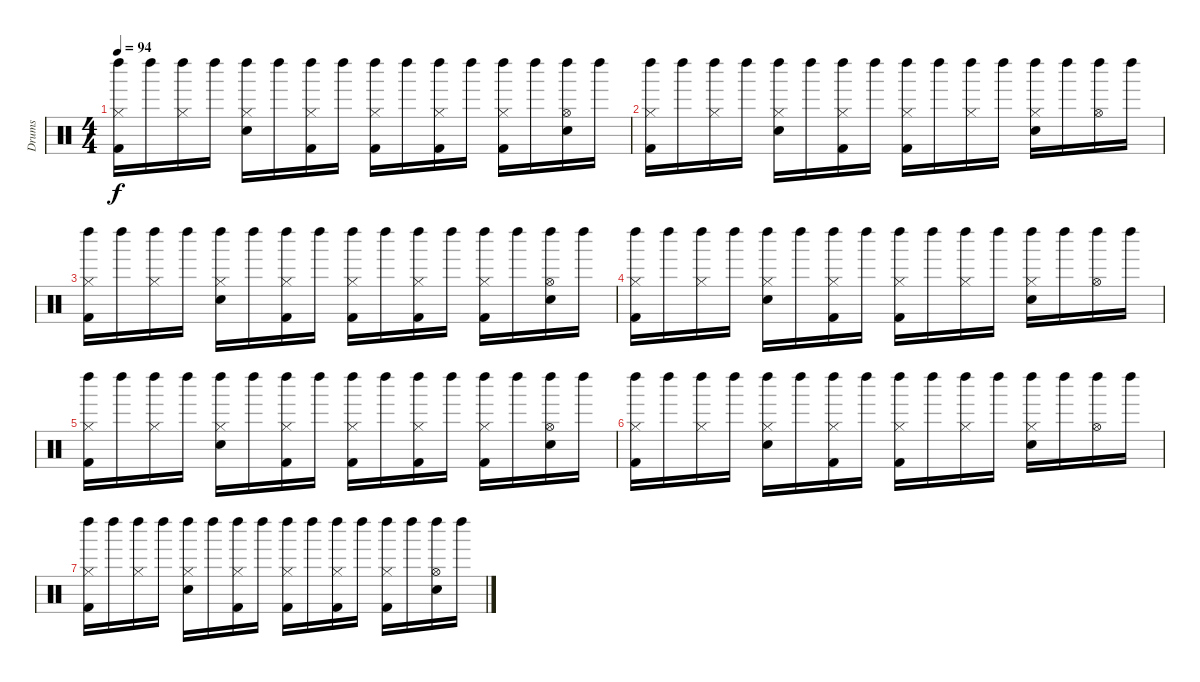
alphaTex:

\track ("Drums" "Drums") {instrument percussion}
\staff {score}
\articulation defaults
\ts (4 4)
\tempo 94
\clef neutral
\ks c
("Left Maraca (hit)" "Hi-Hat (closed)" "Kick (hit) 2").16{dy f} "Left Maraca (hit)".16 ("Left Maraca (hit)" "Hi-Hat (closed)").16 "Left Maraca (hit)".16 ("Left Maraca (hit)" "Hi-Hat (closed)" "Snare (hit) 2").16 "Left Maraca (hit)".16 ("Left Maraca (hit)" "Hi-Hat (closed)" "Kick (hit) 2").16 "Left Maraca (hit)".16 ("Left Maraca (hit)" "Hi-Hat (closed)" "Kick (hit) 2").16 "Left Maraca (hit)".16 ("Left Maraca (hit)" "Hi-Hat (closed)" "Kick (hit) 2").16 "Left Maraca (hit)".16 ("Left Maraca (hit)" "Hi-Hat (closed)" "Kick (hit) 2").16 "Left Maraca (hit)".16 ("Left Maraca (hit)" "Hi-Hat (open)" "Snare (hit) 2").16 "Left Maraca (hit)".16 |
("Left Maraca (hit)" "Hi-Hat (closed)" "Kick (hit) 2").16 "Left Maraca (hit)".16 ("Left Maraca (hit)" "Hi-Hat (closed)").16 "Left Maraca (hit)".16 ("Left Maraca (hit)" "Hi-Hat (closed)" "Snare (hit) 2").16 "Left Maraca (hit)".16 ("Left Maraca (hit)" "Hi-Hat (closed)" "Kick (hit) 2").16 "Left Maraca (hit)".16 ("Left Maraca (hit)" "Hi-Hat (closed)" "Kick (hit) 2").16 "Left Maraca (hit)".16 ("Left Maraca (hit)" "Hi-Hat (closed)").16 "Left Maraca (hit)".16 ("Left Maraca (hit)" "Hi-Hat (closed)" "Snare (hit) 2").16 "Left Maraca (hit)".16 ("Left Maraca (hit)" "Hi-Hat (open)").16 "Left Maraca (hit)".16 |
("Left Maraca (hit)" "Hi-Hat (closed)" "Kick (hit) 2").16 "Left Maraca (hit)".16 ("Left Maraca (hit)" "Hi-Hat (closed)").16 "Left Maraca (hit)".16 ("Left Maraca (hit)" "Hi-Hat (closed)" "Snare (hit) 2").16 "Left Maraca (hit)".16 ("Left Maraca (hit)" "Hi-Hat (closed)" "Kick (hit) 2").16 "Left Maraca (hit)".16 ("Left Maraca (hit)" "Hi-Hat (closed)" "Kick (hit) 2").16 "Left Maraca (hit)".16 ("Left Maraca (hit)" "Hi-Hat (closed)" "Kick (hit) 2").16 "Left Maraca (hit)".16 ("Left Maraca (hit)" "Hi-Hat (closed)" "Kick (hit) 2").16 "Left Maraca (hit)".16 ("Left Maraca (hit)" "Hi-Hat (open)" "Snare (hit) 2").16 "Left Maraca (hit)".16 |
("Left Maraca (hit)" "Hi-Hat (closed)" "Kick (hit) 2").16 "Left Maraca (hit)".16 ("Left Maraca (hit)" "Hi-Hat (closed)").16 "Left Maraca (hit)".16 ("Left Maraca (hit)" "Hi-Hat (closed)" "Snare (hit) 2").16 "Left Maraca (hit)".16 ("Left Maraca (hit)" "Hi-Hat (closed)" "Kick (hit) 2").16 "Left Maraca (hit)".16 ("Left Maraca (hit)" "Hi-Hat (closed)" "Kick (hit) 2").16 "Left Maraca (hit)".16 ("Left Maraca (hit)" "Hi-Hat (closed)").16 "Left Maraca (hit)".16 ("Left Maraca (hit)" "Hi-Hat (closed)" "Snare (hit) 2").16 "Left Maraca (hit)".16 ("Left Maraca (hit)" "Hi-Hat (open)").16 "Left Maraca (hit)".16 |
("Left Maraca (hit)" "Hi-Hat (closed)" "Kick (hit) 2").16 "Left Maraca (hit)".16 ("Left Maraca (hit)" "Hi-Hat (closed)").16 "Left Maraca (hit)".16 ("Left Maraca (hit)" "Hi-Hat (closed)" "Snare (hit) 2").16 "Left Maraca (hit)".16 ("Left Maraca (hit)" "Hi-Hat (closed)" "Kick (hit) 2").16 "Left Maraca (hit)".16 ("Left Maraca (hit)" "Hi-Hat (closed)" "Kick (hit) 2").16 "Left Maraca (hit)".16 ("Left Maraca (hit)" "Hi-Hat (closed)" "Kick (hit) 2").16 "Left Maraca (hit)".16 ("Left Maraca (hit)" "Hi-Hat (closed)" "Kick (hit) 2").16 "Left Maraca (hit)".16 ("Left Maraca (hit)" "Hi-Hat (open)" "Snare (hit) 2").16 "Left Maraca (hit)".16 |
("Left Maraca (hit)" "Hi-Hat (closed)" "Kick (hit) 2").16 "Left Maraca (hit)".16 ("Left Maraca (hit)" "Hi-Hat (closed)").16 "Left Maraca (hit)".16 ("Left Maraca (hit)" "Hi-Hat (closed)" "Snare (hit) 2").16 "Left Maraca (hit)".16 ("Left Maraca (hit)" "Hi-Hat (closed)" "Kick (hit) 2").16 "Left Maraca (hit)".16 ("Left Maraca (hit)" "Hi-Hat (closed)" "Kick (hit) 2").16 "Left Maraca (hit)".16 ("Left Maraca (hit)" "Hi-Hat (closed)").16 "Left Maraca (hit)".16 ("Left Maraca (hit)" "Hi-Hat (closed)" "Snare (hit) 2").16 "Left Maraca (hit)".16 ("Left Maraca (hit)" "Hi-Hat (open)").16 "Left Maraca (hit)".16 |
("Left Maraca (hit)" "Hi-Hat (closed)" "Kick (hit) 2").16 "Left Maraca (hit)".16 ("Left Maraca (hit)" "Hi-Hat (closed)").16 "Left Maraca (hit)".16 ("Left Maraca (hit)" "Hi-Hat (closed)" "Snare (hit) 2").16 "Left Maraca (hit)".16 ("Left Maraca (hit)" "Hi-Hat (closed)" "Kick (hit) 2").16 "Left Maraca (hit)".16 ("Left Maraca (hit)" "Hi-Hat (closed)" "Kick (hit) 2").16 "Left Maraca (hit)".16 ("Left Maraca (hit)" "Hi-Hat (closed)" "Kick (hit) 2").16 "Left Maraca (hit)".16 ("Left Maraca (hit)" "Hi-Hat (closed)" "Kick (hit) 2").16 "Left Maraca (hit)".16 ("Left Maraca (hit)" "Hi-Hat (open)" "Snare (hit) 2").16 "Left Maraca (hit)".16
